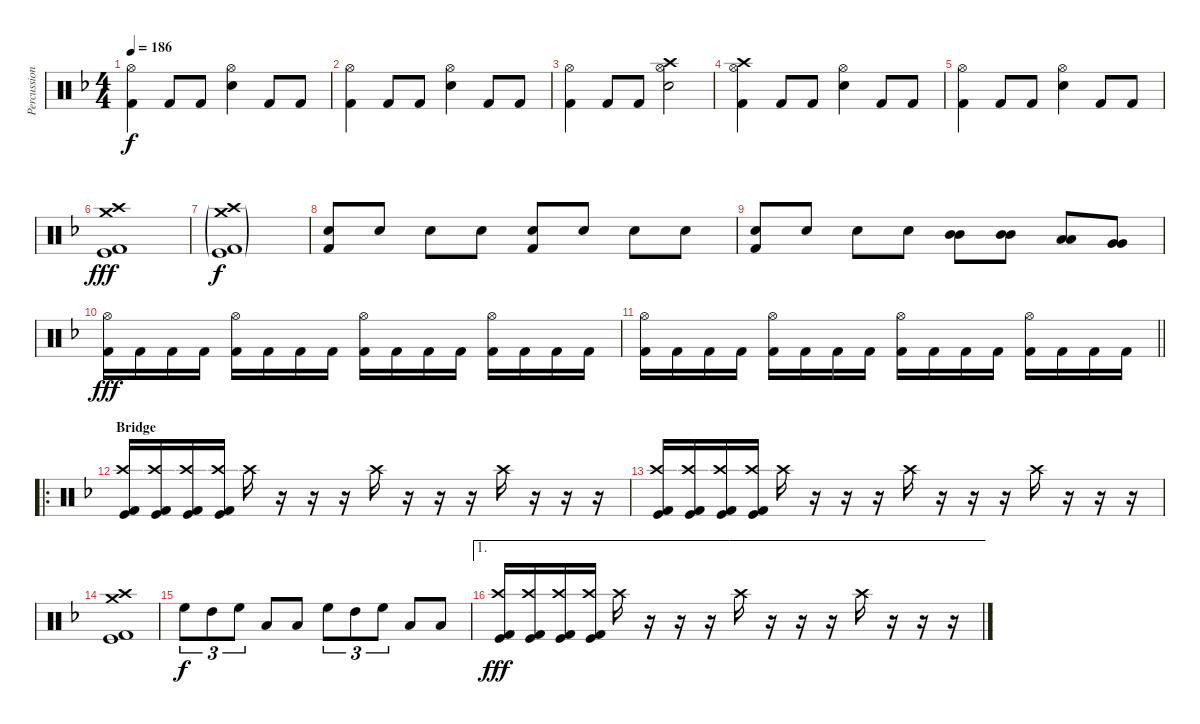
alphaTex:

\track ("Percussion" "Percussion") {instrument percussion}
\staff {score}
\articulation defaults
\ts (4 4)
\tempo 186
\clef neutral
\ks f
("Hi-Hat (open)" "Kick (hit) 2").4{dy f} "Kick (hit) 2".8 "Kick (hit) 2".8 ("Hi-Hat (open)" "Snare (hit) 2").4 "Kick (hit) 2".8 "Kick (hit) 2".8 |
("Hi-Hat (open)" "Kick (hit) 2").4 "Kick (hit) 2".8 "Kick (hit) 2".8 ("Hi-Hat (open)" "Snare (hit) 2").4 "Kick (hit) 2".8 "Kick (hit) 2".8 |
("Hi-Hat (open)" "Kick (hit) 2").4 "Kick (hit) 2".8 "Kick (hit) 2".8 ("Crash high (hit)" "Hi-Hat (open)" "Snare (hit) 2").2 |
("Crash high (hit)" "Hi-Hat (open)" "Kick (hit) 2").4 "Kick (hit) 2".8 "Kick (hit) 2".8 ("Hi-Hat (open)" "Snare (hit) 2").4 "Kick (hit) 2".8 "Kick (hit) 2".8 |
("Hi-Hat (open)" "Kick (hit) 2").4 "Kick (hit) 2".8 "Kick (hit) 2".8 ("Hi-Hat (open)" "Snare (hit) 2").4 "Kick (hit) 2".8 "Kick (hit) 2".8 |
("Crash high (hit)" "Crash medium (hit)" "Kick (hit)" "Kick (hit) 2").1{dy fff} |
("Crash high (hit)"{g} "Crash medium (hit)"{g} "Kick (hit)"{g} "Kick (hit) 2"{g}).1{dy f} |
("Kick (hit) 2" "Snare (hit) 2").8 "Snare (hit) 2".8 "Snare (hit) 2".8 "Snare (hit) 2".8 ("Kick (hit) 2" "Snare (hit) 2").8 "Snare (hit) 2".8 "Snare (hit) 2".8 "Snare (hit) 2".8 |
("Kick (hit) 2" "Snare (hit) 2").8 "Snare (hit) 2".8 "Snare (hit) 2".8 "Snare (hit) 2".8 ("Mid Tom (hit)" "Mid Tom (hit)").8 ("Mid Tom (hit)" "Mid Tom (hit)").8 ("Low Tom (hit)" "Low Tom (hit)").8 ("Very Low Tom (hit)" "Very Low Tom (hit)").8 |
("Hi-Hat (open)" "Kick (hit) 2").16{dy fff} "Kick (hit) 2".16 "Kick (hit) 2".16 "Kick (hit) 2".16 ("Hi-Hat (open)" "Kick (hit) 2").16 "Kick (hit) 2".16 "Kick (hit) 2".16 "Kick (hit) 2".16 ("Hi-Hat (open)" "Kick (hit) 2").16 "Kick (hit) 2".16 "Kick (hit) 2".16 "Kick (hit) 2".16 ("Hi-Hat (open)" "Kick (hit) 2").16 "Kick (hit) 2".16 "Kick (hit) 2".16 "Kick (hit) 2".16 |
\barLineRight lightlight
("Hi-Hat (open)" "Kick (hit) 2").16 "Kick (hit) 2".16 "Kick (hit) 2".16 "Kick (hit) 2".16 ("Hi-Hat (open)" "Kick (hit) 2").16 "Kick (hit) 2".16 "Kick (hit) 2".16 "Kick (hit) 2".16 ("Hi-Hat (open)" "Kick (hit) 2").16 "Kick (hit) 2".16 "Kick (hit) 2".16 "Kick (hit) 2".16 ("Hi-Hat (open)" "Kick (hit) 2").16 "Kick (hit) 2".16 "Kick (hit) 2".16 "Kick (hit) 2".16 |
\ro
\section ("" "Bridge")
("Crash high (hit)" "Kick (hit)" "Kick (hit) 2").16 ("Crash high (hit)" "Kick (hit)" "Kick (hit) 2").16 ("Crash high (hit)" "Kick (hit)" "Kick (hit) 2").16 ("Crash high (hit)" "Kick (hit)" "Kick (hit) 2").16 "Crash high (hit)".16 r.16 r.16 r.16 "Crash high (hit)".16 r.16 r.16 r.16 "Crash high (hit)".16 r.16 r.16 r.16 |
("Crash high (hit)" "Kick (hit)" "Kick (hit) 2").16 ("Crash high (hit)" "Kick (hit)" "Kick (hit) 2").16 ("Crash high (hit)" "Kick (hit)" "Kick (hit) 2").16 ("Crash high (hit)" "Kick (hit)" "Kick (hit) 2").16 "Crash high (hit)".16 r.16 r.16 r.16 "Crash high (hit)".16 r.16 r.16 r.16 "Crash high (hit)".16 r.16 r.16 r.16 |
("Crash high (hit)" "Crash medium (hit)" "Kick (hit)" "Kick (hit) 2").1 |
"High Floor Tom (hit)".8{tu (3 2) dy f} "High Tom (hit)".8{tu (3 2)} "High Floor Tom (hit)".8{tu (3 2)} "Low Tom (hit)".8 "Low Tom (hit)".8 "High Floor Tom (hit)".8{tu (3 2)} "High Tom (hit)".8{tu (3 2)} "High Floor Tom (hit)".8{tu (3 2)} "Low Tom (hit)".8 "Low Tom (hit)".8 |
\ae 1
("Crash high (hit)" "Kick (hit)" "Kick (hit) 2").16{dy fff} ("Crash high (hit)" "Kick (hit)" "Kick (hit) 2").16 ("Crash high (hit)" "Kick (hit)" "Kick (hit) 2").16 ("Crash high (hit)" "Kick (hit)" "Kick (hit) 2").16 "Crash high (hit)".16 r.16 r.16 r.16 "Crash high (hit)".16 r.16 r.16 r.16 "Crash high (hit)".16 r.16 r.16 r.16
